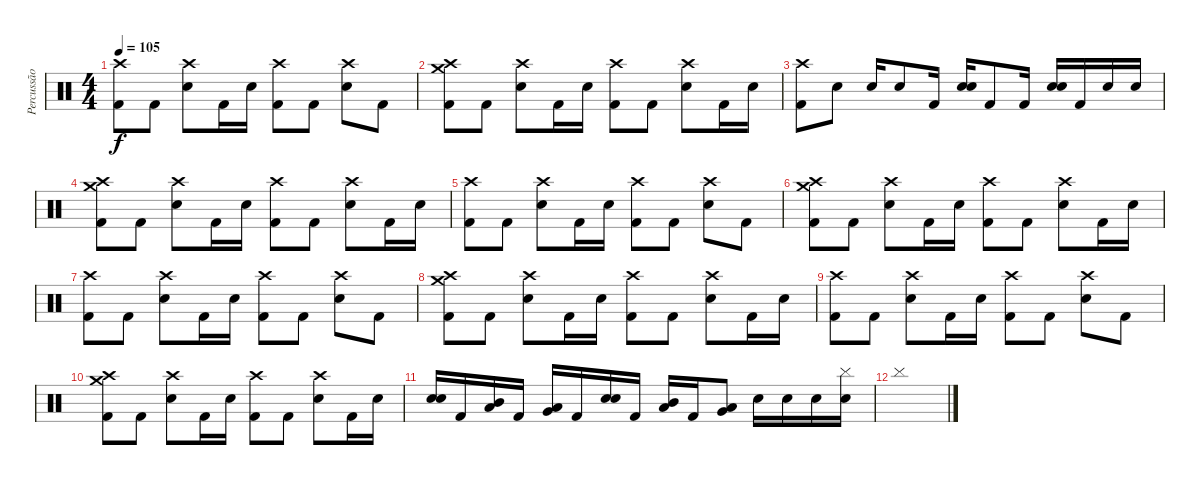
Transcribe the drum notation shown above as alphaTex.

\track ("Percussão" "Percussão") {instrument percussion}
\staff {score}
\articulation defaults
\ts (4 4)
\tempo 105
\clef neutral
\ks c
("Crash high (hit)" "Kick (hit) 2").8{dy f} "Kick (hit) 2".8 ("Crash high (hit)" "Electric Snare (hit)").8 "Kick (hit) 2".16 "Electric Snare (hit)".16 ("Crash high (hit)" "Kick (hit) 2").8 "Kick (hit) 2".8 ("Crash high (hit)" "Electric Snare (hit)").8 "Kick (hit) 2".8 |
("Crash medium (hit)" "Crash high (hit)" "Kick (hit) 2").8 "Kick (hit) 2".8 ("Crash high (hit)" "Electric Snare (hit)").8 "Kick (hit) 2".16 "Electric Snare (hit)".16 ("Crash high (hit)" "Kick (hit) 2").8 "Kick (hit) 2".8 ("Crash high (hit)" "Electric Snare (hit)").8 "Kick (hit) 2".16 "Electric Snare (hit)".16 |
("Crash high (hit)" "Kick (hit) 2").8 "Electric Snare (hit)".8 "Electric Snare (hit)".16 "Electric Snare (hit)".8 "Kick (hit) 2".16 ("Electric Snare (hit)" "Electric Snare (hit)").16{bd 240} "Kick (hit) 2".8 "Kick (hit) 2".16 ("Electric Snare (hit)" "Electric Snare (hit)").16{bd 240} "Kick (hit) 2".16 "Electric Snare (hit)".16 "Electric Snare (hit)".16 |
("Crash medium (hit)" "Crash high (hit)" "Kick (hit) 2").8 "Kick (hit) 2".8 ("Crash high (hit)" "Electric Snare (hit)").8 "Kick (hit) 2".16 "Electric Snare (hit)".16 ("Crash high (hit)" "Kick (hit) 2").8 "Kick (hit) 2".8 ("Crash high (hit)" "Electric Snare (hit)").8 "Kick (hit) 2".16 "Electric Snare (hit)".16 |
("Crash high (hit)" "Kick (hit) 2").8 "Kick (hit) 2".8 ("Crash high (hit)" "Electric Snare (hit)").8 "Kick (hit) 2".16 "Electric Snare (hit)".16 ("Crash high (hit)" "Kick (hit) 2").8 "Kick (hit) 2".8 ("Crash high (hit)" "Electric Snare (hit)").8 "Kick (hit) 2".8 |
("Crash medium (hit)" "Crash high (hit)" "Kick (hit) 2").8 "Kick (hit) 2".8 ("Crash high (hit)" "Electric Snare (hit)").8 "Kick (hit) 2".16 "Electric Snare (hit)".16 ("Crash high (hit)" "Kick (hit) 2").8 "Kick (hit) 2".8 ("Crash high (hit)" "Electric Snare (hit)").8 "Kick (hit) 2".16 "Electric Snare (hit)".16 |
("Crash high (hit)" "Kick (hit) 2").8 "Kick (hit) 2".8 ("Crash high (hit)" "Electric Snare (hit)").8 "Kick (hit) 2".16 "Electric Snare (hit)".16 ("Crash high (hit)" "Kick (hit) 2").8 "Kick (hit) 2".8 ("Crash high (hit)" "Electric Snare (hit)").8 "Kick (hit) 2".8 |
("Crash medium (hit)" "Crash high (hit)" "Kick (hit) 2").8 "Kick (hit) 2".8 ("Crash high (hit)" "Electric Snare (hit)").8 "Kick (hit) 2".16 "Electric Snare (hit)".16 ("Crash high (hit)" "Kick (hit) 2").8 "Kick (hit) 2".8 ("Crash high (hit)" "Electric Snare (hit)").8 "Kick (hit) 2".16 "Electric Snare (hit)".16 |
("Crash high (hit)" "Kick (hit) 2").8 "Kick (hit) 2".8 ("Crash high (hit)" "Electric Snare (hit)").8 "Kick (hit) 2".16 "Electric Snare (hit)".16 ("Crash high (hit)" "Kick (hit) 2").8 "Kick (hit) 2".8 ("Crash high (hit)" "Electric Snare (hit)").8 "Kick (hit) 2".8 |
("Crash medium (hit)" "Crash high (hit)" "Kick (hit) 2").8 "Kick (hit) 2".8 ("Crash high (hit)" "Electric Snare (hit)").8 "Kick (hit) 2".16 "Electric Snare (hit)".16 ("Crash high (hit)" "Kick (hit) 2").8 "Kick (hit) 2".8 ("Crash high (hit)" "Electric Snare (hit)").8 "Kick (hit) 2".16 "Electric Snare (hit)".16 |
("Electric Snare (hit)" "Electric Snare (hit)").16{bd 240} "Kick (hit) 2".16 ("Low Tom (hit)" "Mid Tom (hit)").16{bd 240} "Kick (hit) 2".16 ("Very Low Tom (hit)" "Low Tom (hit)").16{bd 240} "Kick (hit) 2".16 ("Electric Snare (hit)" "Electric Snare (hit)").16{bd 240} "Kick (hit) 2".16 ("Mid Tom (hit)" "Low Tom (hit)").16{bd 240} "Kick (hit) 2".16 ("Very Low Tom (hit)" "Low Tom (hit)").8{bd 240} "Electric Snare (hit)".16 "Electric Snare (hit)".16 "Electric Snare (hit)".16 ("Electric Snare (hit)" "Cymbal (hit)").16 |
"Cymbal (hit)".1
